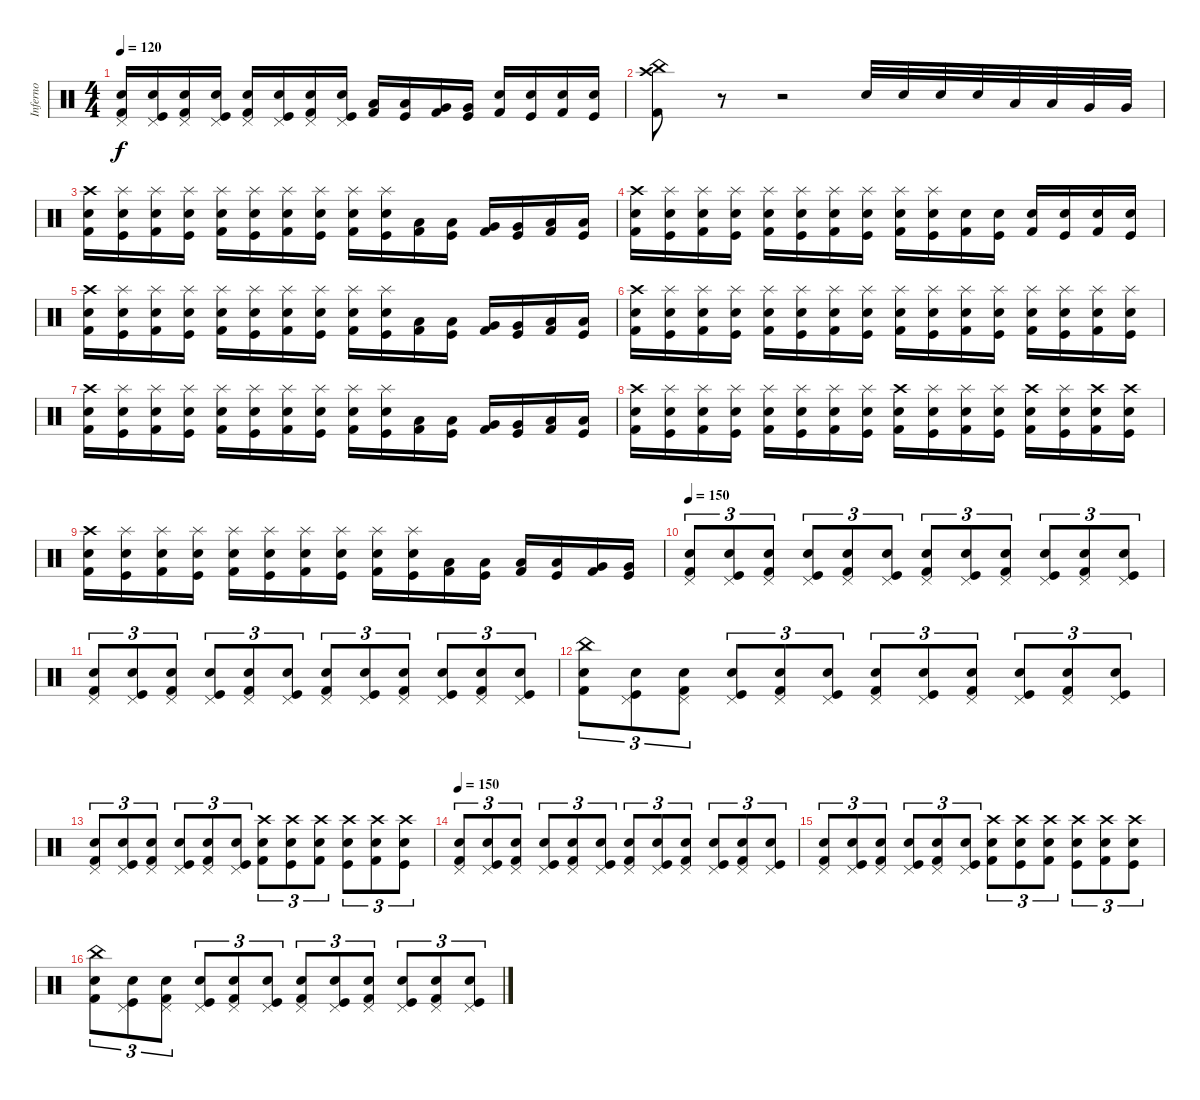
\track ("Inferno" "Inferno") {instrument percussion}
\staff {score}
\articulation defaults
\ts (4 4)
\tempo 120
\clef neutral
\ks c
("Pedal Hi-Hat (hit)" "Electric Snare (hit)" "Kick (hit) 2").16{dy f} ("Pedal Hi-Hat (hit)" "Electric Snare (hit)" "Kick (hit)").16 ("Pedal Hi-Hat (hit)" "Electric Snare (hit)" "Kick (hit) 2").16 ("Pedal Hi-Hat (hit)" "Electric Snare (hit)" "Kick (hit)").16 ("Pedal Hi-Hat (hit)" "Electric Snare (hit)" "Kick (hit) 2").16 ("Pedal Hi-Hat (hit)" "Electric Snare (hit)" "Kick (hit)").16 ("Pedal Hi-Hat (hit)" "Electric Snare (hit)" "Kick (hit) 2").16 ("Pedal Hi-Hat (hit)" "Electric Snare (hit)" "Kick (hit)").16 ("Low Tom (hit)" "Kick (hit) 2").16 ("Low Tom (hit)" "Kick (hit)").16 ("Very Low Tom (hit)" "Kick (hit) 2").16 ("Very Low Tom (hit)" "Kick (hit)").16 ("Electric Snare (hit)" "Kick (hit) 2").16 ("Electric Snare (hit)" "Kick (hit)").16 ("Electric Snare (hit)" "Kick (hit) 2").16 ("Electric Snare (hit)" "Kick (hit)").16 |
("Crash high (hit)" "China (hit)" "Kick (hit) 2").8 r.8 r.2 "Electric Snare (hit)".32 "Electric Snare (hit)".32 "Electric Snare (hit)".32 "Electric Snare (hit)".32 "Low Tom (hit)".32 "Low Tom (hit)".32 "Very Low Tom (hit)".32 "Very Low Tom (hit)".32 |
("Crash high (hit)" "Electric Snare (hit)" "Kick (hit) 2").16 ("Splash (hit)" "Electric Snare (hit)" "Kick (hit)").16 ("Splash (hit)" "Electric Snare (hit)" "Kick (hit) 2").16 ("Splash (hit)" "Electric Snare (hit)" "Kick (hit)").16 ("Splash (hit)" "Electric Snare (hit)" "Kick (hit) 2").16 ("Splash (hit)" "Electric Snare (hit)" "Kick (hit)").16 ("Splash (hit)" "Electric Snare (hit)" "Kick (hit) 2").16 ("Splash (hit)" "Electric Snare (hit)" "Kick (hit)").16 ("Splash (hit)" "Electric Snare (hit)" "Kick (hit) 2").16 ("Splash (hit)" "Electric Snare (hit)" "Kick (hit)").16 ("Low Tom (hit)" "Kick (hit) 2").16 ("Low Tom (hit)" "Kick (hit)").16 ("Very Low Tom (hit)" "Kick (hit) 2").16 ("Very Low Tom (hit)" "Kick (hit)").16 ("Low Floor Tom (hit)" "Kick (hit) 2").16 ("Low Floor Tom (hit)" "Kick (hit)").16 |
("Crash high (hit)" "Electric Snare (hit)" "Kick (hit) 2").16 ("Splash (hit)" "Electric Snare (hit)" "Kick (hit)").16 ("Splash (hit)" "Electric Snare (hit)" "Kick (hit) 2").16 ("Splash (hit)" "Electric Snare (hit)" "Kick (hit)").16 ("Splash (hit)" "Electric Snare (hit)" "Kick (hit) 2").16 ("Splash (hit)" "Electric Snare (hit)" "Kick (hit)").16 ("Splash (hit)" "Electric Snare (hit)" "Kick (hit) 2").16 ("Splash (hit)" "Electric Snare (hit)" "Kick (hit)").16 ("Splash (hit)" "Electric Snare (hit)" "Kick (hit) 2").16 ("Splash (hit)" "Electric Snare (hit)" "Kick (hit)").16 ("Electric Snare (hit)" "Kick (hit) 2").16 ("Electric Snare (hit)" "Kick (hit)").16 ("Electric Snare (hit)" "Kick (hit) 2").16 ("Electric Snare (hit)" "Kick (hit)").16 ("Electric Snare (hit)" "Kick (hit) 2").16 ("Electric Snare (hit)" "Kick (hit)").16 |
("Crash high (hit)" "Electric Snare (hit)" "Kick (hit) 2").16 ("Splash (hit)" "Electric Snare (hit)" "Kick (hit)").16 ("Splash (hit)" "Electric Snare (hit)" "Kick (hit) 2").16 ("Splash (hit)" "Electric Snare (hit)" "Kick (hit)").16 ("Splash (hit)" "Electric Snare (hit)" "Kick (hit) 2").16 ("Splash (hit)" "Electric Snare (hit)" "Kick (hit)").16 ("Splash (hit)" "Electric Snare (hit)" "Kick (hit) 2").16 ("Splash (hit)" "Electric Snare (hit)" "Kick (hit)").16 ("Splash (hit)" "Electric Snare (hit)" "Kick (hit) 2").16 ("Splash (hit)" "Electric Snare (hit)" "Kick (hit)").16 ("Low Tom (hit)" "Kick (hit) 2").16 ("Low Tom (hit)" "Kick (hit)").16 ("Very Low Tom (hit)" "Kick (hit) 2").16 ("Very Low Tom (hit)" "Kick (hit)").16 ("Low Floor Tom (hit)" "Kick (hit) 2").16 ("Low Floor Tom (hit)" "Kick (hit)").16 |
("Crash high (hit)" "Electric Snare (hit)" "Kick (hit) 2").16 ("Splash (hit)" "Electric Snare (hit)" "Kick (hit)").16 ("Splash (hit)" "Electric Snare (hit)" "Kick (hit) 2").16 ("Splash (hit)" "Electric Snare (hit)" "Kick (hit)").16 ("Splash (hit)" "Electric Snare (hit)" "Kick (hit) 2").16 ("Splash (hit)" "Electric Snare (hit)" "Kick (hit)").16 ("Splash (hit)" "Electric Snare (hit)" "Kick (hit) 2").16 ("Splash (hit)" "Electric Snare (hit)" "Kick (hit)").16 ("Splash (hit)" "Electric Snare (hit)" "Kick (hit) 2").16 ("Splash (hit)" "Electric Snare (hit)" "Kick (hit)").16 ("Splash (hit)" "Electric Snare (hit)" "Kick (hit) 2").16 ("Splash (hit)" "Electric Snare (hit)" "Kick (hit)").16 ("Splash (hit)" "Electric Snare (hit)" "Kick (hit) 2").16 ("Splash (hit)" "Electric Snare (hit)" "Kick (hit)").16 ("Splash (hit)" "Electric Snare (hit)" "Kick (hit) 2").16 ("Splash (hit)" "Electric Snare (hit)" "Kick (hit)").16 |
("Crash high (hit)" "Electric Snare (hit)" "Kick (hit) 2").16 ("Splash (hit)" "Electric Snare (hit)" "Kick (hit)").16 ("Splash (hit)" "Electric Snare (hit)" "Kick (hit) 2").16 ("Splash (hit)" "Electric Snare (hit)" "Kick (hit)").16 ("Splash (hit)" "Electric Snare (hit)" "Kick (hit) 2").16 ("Splash (hit)" "Electric Snare (hit)" "Kick (hit)").16 ("Splash (hit)" "Electric Snare (hit)" "Kick (hit) 2").16 ("Splash (hit)" "Electric Snare (hit)" "Kick (hit)").16 ("Splash (hit)" "Electric Snare (hit)" "Kick (hit) 2").16 ("Splash (hit)" "Electric Snare (hit)" "Kick (hit)").16 ("Low Tom (hit)" "Kick (hit) 2").16 ("Low Tom (hit)" "Kick (hit)").16 ("Very Low Tom (hit)" "Kick (hit) 2").16 ("Very Low Tom (hit)" "Kick (hit)").16 ("Low Floor Tom (hit)" "Kick (hit) 2").16 ("Low Floor Tom (hit)" "Kick (hit)").16 |
("Crash high (hit)" "Electric Snare (hit)" "Kick (hit) 2").16 ("Splash (hit)" "Electric Snare (hit)" "Kick (hit)").16 ("Splash (hit)" "Electric Snare (hit)" "Kick (hit) 2").16 ("Splash (hit)" "Electric Snare (hit)" "Kick (hit)").16 ("Splash (hit)" "Electric Snare (hit)" "Kick (hit) 2").16 ("Splash (hit)" "Electric Snare (hit)" "Kick (hit)").16 ("Splash (hit)" "Electric Snare (hit)" "Kick (hit) 2").16 ("Splash (hit)" "Electric Snare (hit)" "Kick (hit)").16 ("Crash high (hit)" "Electric Snare (hit)" "Kick (hit) 2").16 ("Splash (hit)" "Electric Snare (hit)" "Kick (hit)").16 ("Splash (hit)" "Electric Snare (hit)" "Kick (hit) 2").16 ("Splash (hit)" "Electric Snare (hit)" "Kick (hit)").16 ("Crash high (hit)" "Electric Snare (hit)" "Kick (hit) 2").16 ("Splash (hit)" "Electric Snare (hit)" "Kick (hit)").16 ("Crash high (hit)" "Electric Snare (hit)" "Kick (hit) 2").16 ("Crash high (hit)" "Electric Snare (hit)" "Kick (hit)").16 |
("Crash high (hit)" "Electric Snare (hit)" "Kick (hit) 2").16 ("Splash (hit)" "Electric Snare (hit)" "Kick (hit)").16 ("Splash (hit)" "Electric Snare (hit)" "Kick (hit) 2").16 ("Splash (hit)" "Electric Snare (hit)" "Kick (hit)").16 ("Splash (hit)" "Electric Snare (hit)" "Kick (hit) 2").16 ("Splash (hit)" "Electric Snare (hit)" "Kick (hit)").16 ("Splash (hit)" "Electric Snare (hit)" "Kick (hit) 2").16 ("Splash (hit)" "Electric Snare (hit)" "Kick (hit)").16 ("Splash (hit)" "Electric Snare (hit)" "Kick (hit) 2").16 ("Splash (hit)" "Electric Snare (hit)" "Kick (hit)").16 ("Low Tom (hit)" "Kick (hit) 2").16 ("Low Tom (hit)" "Kick (hit)").16 ("Low Tom (hit)" "Kick (hit) 2").16 ("Low Tom (hit)" "Kick (hit)").16 ("Very Low Tom (hit)" "Kick (hit) 2").16 ("Very Low Tom (hit)" "Kick (hit)").16 |
\tempo 150
("Pedal Hi-Hat (hit)" "Electric Snare (hit)" "Kick (hit) 2").8{tu (3 2)} ("Pedal Hi-Hat (hit)" "Electric Snare (hit)" "Kick (hit)").8{tu (3 2)} ("Pedal Hi-Hat (hit)" "Electric Snare (hit)" "Kick (hit) 2").8{tu (3 2)} ("Pedal Hi-Hat (hit)" "Electric Snare (hit)" "Kick (hit)").8{tu (3 2)} ("Pedal Hi-Hat (hit)" "Electric Snare (hit)" "Kick (hit) 2").8{tu (3 2)} ("Pedal Hi-Hat (hit)" "Electric Snare (hit)" "Kick (hit)").8{tu (3 2)} ("Pedal Hi-Hat (hit)" "Electric Snare (hit)" "Kick (hit) 2").8{tu (3 2)} ("Pedal Hi-Hat (hit)" "Electric Snare (hit)" "Kick (hit)").8{tu (3 2)} ("Pedal Hi-Hat (hit)" "Electric Snare (hit)" "Kick (hit) 2").8{tu (3 2)} ("Pedal Hi-Hat (hit)" "Electric Snare (hit)" "Kick (hit)").8{tu (3 2)} ("Pedal Hi-Hat (hit)" "Electric Snare (hit)" "Kick (hit) 2").8{tu (3 2)} ("Pedal Hi-Hat (hit)" "Electric Snare (hit)" "Kick (hit)").8{tu (3 2)} |
("Pedal Hi-Hat (hit)" "Electric Snare (hit)" "Kick (hit) 2").8{tu (3 2)} ("Pedal Hi-Hat (hit)" "Electric Snare (hit)" "Kick (hit)").8{tu (3 2)} ("Pedal Hi-Hat (hit)" "Electric Snare (hit)" "Kick (hit) 2").8{tu (3 2)} ("Pedal Hi-Hat (hit)" "Electric Snare (hit)" "Kick (hit)").8{tu (3 2)} ("Pedal Hi-Hat (hit)" "Electric Snare (hit)" "Kick (hit) 2").8{tu (3 2)} ("Pedal Hi-Hat (hit)" "Electric Snare (hit)" "Kick (hit)").8{tu (3 2)} ("Pedal Hi-Hat (hit)" "Electric Snare (hit)" "Kick (hit) 2").8{tu (3 2)} ("Pedal Hi-Hat (hit)" "Electric Snare (hit)" "Kick (hit)").8{tu (3 2)} ("Pedal Hi-Hat (hit)" "Electric Snare (hit)" "Kick (hit) 2").8{tu (3 2)} ("Pedal Hi-Hat (hit)" "Electric Snare (hit)" "Kick (hit)").8{tu (3 2)} ("Pedal Hi-Hat (hit)" "Electric Snare (hit)" "Kick (hit) 2").8{tu (3 2)} ("Pedal Hi-Hat (hit)" "Electric Snare (hit)" "Kick (hit)").8{tu (3 2)} |
("China (hit)" "Electric Snare (hit)" "Kick (hit) 2").8{tu (3 2)} ("Pedal Hi-Hat (hit)" "Electric Snare (hit)" "Kick (hit)").8{tu (3 2)} ("Pedal Hi-Hat (hit)" "Electric Snare (hit)" "Kick (hit) 2").8{tu (3 2)} ("Pedal Hi-Hat (hit)" "Electric Snare (hit)" "Kick (hit)").8{tu (3 2)} ("Pedal Hi-Hat (hit)" "Electric Snare (hit)" "Kick (hit) 2").8{tu (3 2)} ("Pedal Hi-Hat (hit)" "Electric Snare (hit)" "Kick (hit)").8{tu (3 2)} ("Pedal Hi-Hat (hit)" "Electric Snare (hit)" "Kick (hit) 2").8{tu (3 2)} ("Pedal Hi-Hat (hit)" "Electric Snare (hit)" "Kick (hit)").8{tu (3 2)} ("Pedal Hi-Hat (hit)" "Electric Snare (hit)" "Kick (hit) 2").8{tu (3 2)} ("Pedal Hi-Hat (hit)" "Electric Snare (hit)" "Kick (hit)").8{tu (3 2)} ("Pedal Hi-Hat (hit)" "Electric Snare (hit)" "Kick (hit) 2").8{tu (3 2)} ("Pedal Hi-Hat (hit)" "Electric Snare (hit)" "Kick (hit)").8{tu (3 2)} |
("Pedal Hi-Hat (hit)" "Electric Snare (hit)" "Kick (hit) 2").8{tu (3 2)} ("Pedal Hi-Hat (hit)" "Electric Snare (hit)" "Kick (hit)").8{tu (3 2)} ("Pedal Hi-Hat (hit)" "Electric Snare (hit)" "Kick (hit) 2").8{tu (3 2)} ("Pedal Hi-Hat (hit)" "Electric Snare (hit)" "Kick (hit)").8{tu (3 2)} ("Pedal Hi-Hat (hit)" "Electric Snare (hit)" "Kick (hit) 2").8{tu (3 2)} ("Pedal Hi-Hat (hit)" "Electric Snare (hit)" "Kick (hit)").8{tu (3 2)} ("Crash high (hit)" "Electric Snare (hit)" "Kick (hit) 2").8{tu (3 2)} ("Crash high (hit)" "Electric Snare (hit)" "Kick (hit)").8{tu (3 2)} ("Crash high (hit)" "Electric Snare (hit)" "Kick (hit) 2").8{tu (3 2)} ("Crash high (hit)" "Electric Snare (hit)" "Kick (hit)").8{tu (3 2)} ("Crash high (hit)" "Electric Snare (hit)" "Kick (hit) 2").8{tu (3 2)} ("Crash high (hit)" "Electric Snare (hit)" "Kick (hit)").8{tu (3 2)} |
\tempo 150
("Pedal Hi-Hat (hit)" "Electric Snare (hit)" "Kick (hit) 2").8{tu (3 2)} ("Pedal Hi-Hat (hit)" "Electric Snare (hit)" "Kick (hit)").8{tu (3 2)} ("Pedal Hi-Hat (hit)" "Electric Snare (hit)" "Kick (hit) 2").8{tu (3 2)} ("Pedal Hi-Hat (hit)" "Electric Snare (hit)" "Kick (hit)").8{tu (3 2)} ("Pedal Hi-Hat (hit)" "Electric Snare (hit)" "Kick (hit) 2").8{tu (3 2)} ("Pedal Hi-Hat (hit)" "Electric Snare (hit)" "Kick (hit)").8{tu (3 2)} ("Pedal Hi-Hat (hit)" "Electric Snare (hit)" "Kick (hit) 2").8{tu (3 2)} ("Pedal Hi-Hat (hit)" "Electric Snare (hit)" "Kick (hit)").8{tu (3 2)} ("Pedal Hi-Hat (hit)" "Electric Snare (hit)" "Kick (hit) 2").8{tu (3 2)} ("Pedal Hi-Hat (hit)" "Electric Snare (hit)" "Kick (hit)").8{tu (3 2)} ("Pedal Hi-Hat (hit)" "Electric Snare (hit)" "Kick (hit) 2").8{tu (3 2)} ("Pedal Hi-Hat (hit)" "Electric Snare (hit)" "Kick (hit)").8{tu (3 2)} |
("Pedal Hi-Hat (hit)" "Electric Snare (hit)" "Kick (hit) 2").8{tu (3 2)} ("Pedal Hi-Hat (hit)" "Electric Snare (hit)" "Kick (hit)").8{tu (3 2)} ("Pedal Hi-Hat (hit)" "Electric Snare (hit)" "Kick (hit) 2").8{tu (3 2)} ("Pedal Hi-Hat (hit)" "Electric Snare (hit)" "Kick (hit)").8{tu (3 2)} ("Pedal Hi-Hat (hit)" "Electric Snare (hit)" "Kick (hit) 2").8{tu (3 2)} ("Pedal Hi-Hat (hit)" "Electric Snare (hit)" "Kick (hit)").8{tu (3 2)} ("Crash high (hit)" "Electric Snare (hit)" "Kick (hit) 2").8{tu (3 2)} ("Crash high (hit)" "Electric Snare (hit)" "Kick (hit)").8{tu (3 2)} ("Crash high (hit)" "Electric Snare (hit)" "Kick (hit) 2").8{tu (3 2)} ("Crash high (hit)" "Electric Snare (hit)" "Kick (hit)").8{tu (3 2)} ("Crash high (hit)" "Electric Snare (hit)" "Kick (hit) 2").8{tu (3 2)} ("Crash high (hit)" "Electric Snare (hit)" "Kick (hit)").8{tu (3 2)} |
("China (hit)" "Electric Snare (hit)" "Kick (hit) 2").8{tu (3 2)} ("Pedal Hi-Hat (hit)" "Electric Snare (hit)" "Kick (hit)").8{tu (3 2)} ("Pedal Hi-Hat (hit)" "Electric Snare (hit)" "Kick (hit) 2").8{tu (3 2)} ("Pedal Hi-Hat (hit)" "Electric Snare (hit)" "Kick (hit)").8{tu (3 2)} ("Pedal Hi-Hat (hit)" "Electric Snare (hit)" "Kick (hit) 2").8{tu (3 2)} ("Pedal Hi-Hat (hit)" "Electric Snare (hit)" "Kick (hit)").8{tu (3 2)} ("Pedal Hi-Hat (hit)" "Electric Snare (hit)" "Kick (hit) 2").8{tu (3 2)} ("Pedal Hi-Hat (hit)" "Electric Snare (hit)" "Kick (hit)").8{tu (3 2)} ("Pedal Hi-Hat (hit)" "Electric Snare (hit)" "Kick (hit) 2").8{tu (3 2)} ("Pedal Hi-Hat (hit)" "Electric Snare (hit)" "Kick (hit)").8{tu (3 2)} ("Pedal Hi-Hat (hit)" "Electric Snare (hit)" "Kick (hit) 2").8{tu (3 2)} ("Pedal Hi-Hat (hit)" "Electric Snare (hit)" "Kick (hit)").8{tu (3 2)}
